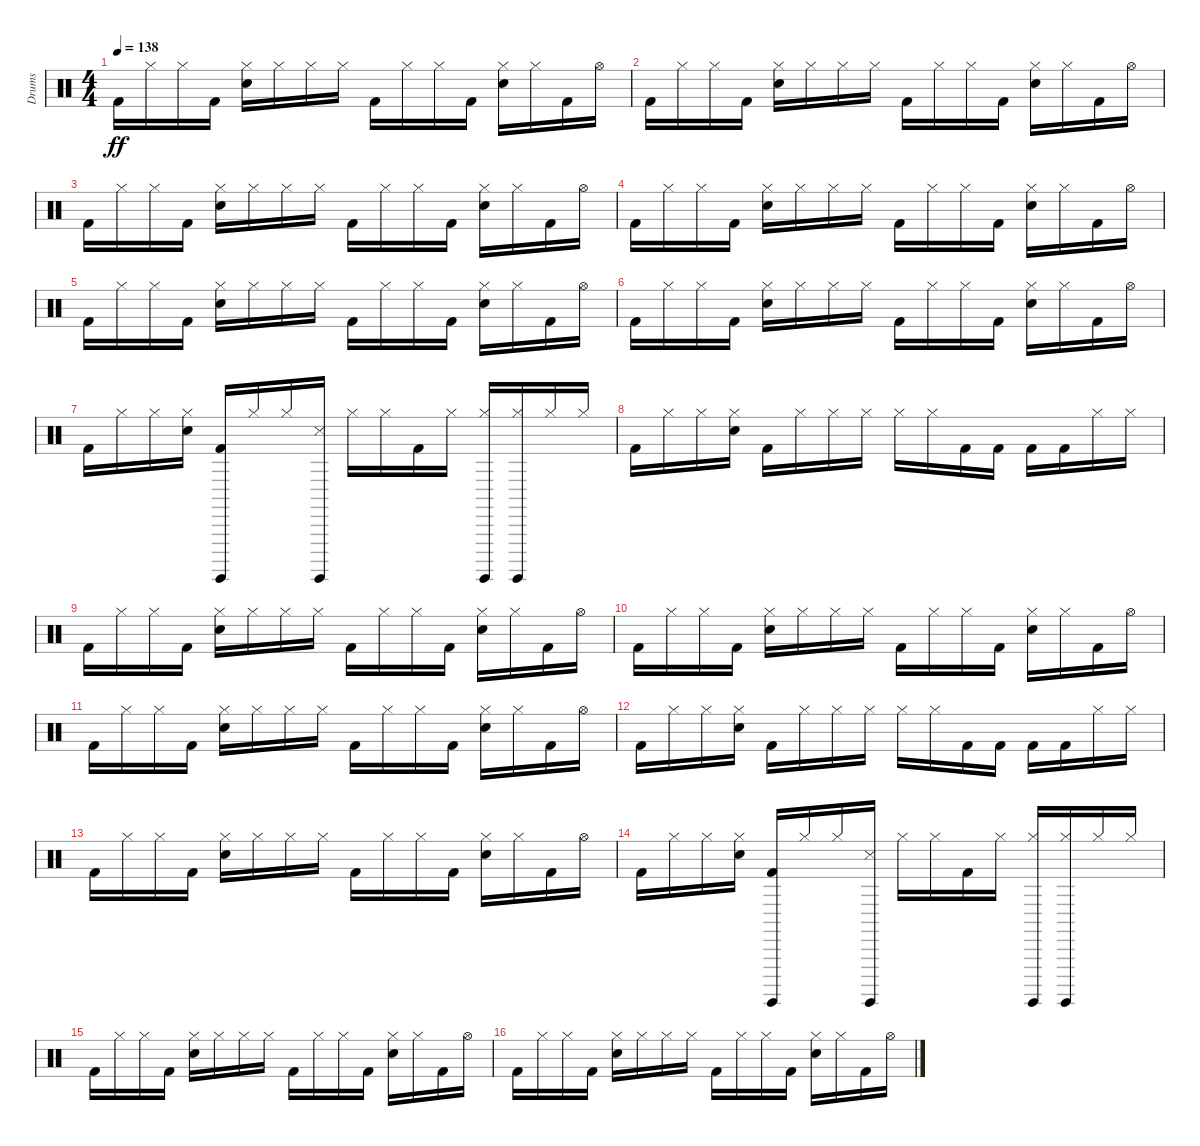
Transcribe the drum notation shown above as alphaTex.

\track ("Drums" "Drums") {instrument percussion}
\staff {score}
\articulation defaults
\ts (4 4)
\tempo 138
\clef neutral
\ks c "Kick (hit) 2".16{dy ff} "Hi-Hat (closed)".16 "Hi-Hat (closed)".16 "Kick (hit) 2".16
("Electric Snare (hit)" "Hi-Hat (closed)").16 "Hi-Hat (closed)".16 "Hi-Hat (closed)".16 "Hi-Hat (closed)".16 "Kick (hit) 2".16 "Hi-Hat (closed)".16 "Hi-Hat (closed)".16 "Kick (hit) 2".16 ("Electric Snare (hit)" "Hi-Hat (closed)").16 "Hi-Hat (closed)".16 "Kick (hit) 2".16 "Hi-Hat (open)".16 |
"Kick (hit) 2".16 "Hi-Hat (closed)".16 "Hi-Hat (closed)".16 "Kick (hit) 2".16 ("Electric Snare (hit)" "Hi-Hat (closed)").16 "Hi-Hat (closed)".16 "Hi-Hat (closed)".16 "Hi-Hat (closed)".16 "Kick (hit) 2".16 "Hi-Hat (closed)".16 "Hi-Hat (closed)".16 "Kick (hit) 2".16 ("Electric Snare (hit)" "Hi-Hat (closed)").16 "Hi-Hat (closed)".16 "Kick (hit) 2".16 "Hi-Hat (open)".16 |
"Kick (hit) 2".16 "Hi-Hat (closed)".16 "Hi-Hat (closed)".16 "Kick (hit) 2".16 ("Electric Snare (hit)" "Hi-Hat (closed)").16 "Hi-Hat (closed)".16 "Hi-Hat (closed)".16 "Hi-Hat (closed)".16 "Kick (hit) 2".16 "Hi-Hat (closed)".16 "Hi-Hat (closed)".16 "Kick (hit) 2".16 ("Electric Snare (hit)" "Hi-Hat (closed)").16 "Hi-Hat (closed)".16 "Kick (hit) 2".16 "Hi-Hat (open)".16 |
"Kick (hit) 2".16 "Hi-Hat (closed)".16 "Hi-Hat (closed)".16 "Kick (hit) 2".16 ("Electric Snare (hit)" "Hi-Hat (closed)").16 "Hi-Hat (closed)".16 "Hi-Hat (closed)".16 "Hi-Hat (closed)".16 "Kick (hit) 2".16 "Hi-Hat (closed)".16 "Hi-Hat (closed)".16 "Kick (hit) 2".16 ("Electric Snare (hit)" "Hi-Hat (closed)").16 "Hi-Hat (closed)".16 "Kick (hit) 2".16 "Hi-Hat (open)".16 |
"Kick (hit) 2".16 "Hi-Hat (closed)".16 "Hi-Hat (closed)".16 "Kick (hit) 2".16 ("Electric Snare (hit)" "Hi-Hat (closed)").16 "Hi-Hat (closed)".16 "Hi-Hat (closed)".16 "Hi-Hat (closed)".16 "Kick (hit) 2".16 "Hi-Hat (closed)".16 "Hi-Hat (closed)".16 "Kick (hit) 2".16 ("Electric Snare (hit)" "Hi-Hat (closed)").16 "Hi-Hat (closed)".16 "Kick (hit) 2".16 "Hi-Hat (open)".16 |
"Kick (hit) 2".16 "Hi-Hat (closed)".16 "Hi-Hat (closed)".16 "Kick (hit) 2".16 ("Electric Snare (hit)" "Hi-Hat (closed)").16 "Hi-Hat (closed)".16 "Hi-Hat (closed)".16 "Hi-Hat (closed)".16 "Kick (hit) 2".16 "Hi-Hat (closed)".16 "Hi-Hat (closed)".16 "Kick (hit) 2".16 ("Electric Snare (hit)" "Hi-Hat (closed)").16 "Hi-Hat (closed)".16 "Kick (hit) 2".16 "Hi-Hat (open)".16 |
"Kick (hit) 2".16 "Hi-Hat (closed)".16 "Hi-Hat (closed)".16 ("Electric Snare (hit)" "Hi-Hat (closed)").16 ("Kick (hit) 2" "Surdo (hit)").16 "Hi-Hat (closed)".16 "Hi-Hat (closed)".16 ("Snare (side stick) 3" "Surdo (hit)").16 "Hi-Hat (closed)".16 "Hi-Hat (closed)".16 "Kick (hit) 2".16 "Hi-Hat (closed)".16 ("Hi-Hat (closed)" "Surdo (hit)").16 ("Hi-Hat (closed)" "Surdo (hit)").16 "Hi-Hat (closed)".16 "Hi-Hat (closed)".16 |
"Kick (hit) 2".16 "Hi-Hat (closed)".16 "Hi-Hat (closed)".16 ("Electric Snare (hit)" "Hi-Hat (closed)").16 "Kick (hit) 2".16 "Hi-Hat (closed)".16 "Hi-Hat (closed)".16 "Hi-Hat (closed)".16 "Hi-Hat (closed)".16 "Hi-Hat (closed)".16 "Kick (hit) 2".16 "Kick (hit) 2".16 "Kick (hit) 2".16 "Kick (hit) 2".16 "Hi-Hat (closed)".16 "Hi-Hat (closed)".16 |
"Kick (hit) 2".16 "Hi-Hat (closed)".16 "Hi-Hat (closed)".16 "Kick (hit) 2".16 ("Electric Snare (hit)" "Hi-Hat (closed)").16 "Hi-Hat (closed)".16 "Hi-Hat (closed)".16 "Hi-Hat (closed)".16 "Kick (hit) 2".16 "Hi-Hat (closed)".16 "Hi-Hat (closed)".16 "Kick (hit) 2".16 ("Electric Snare (hit)" "Hi-Hat (closed)").16 "Hi-Hat (closed)".16 "Kick (hit) 2".16 "Hi-Hat (open)".16 |
"Kick (hit) 2".16 "Hi-Hat (closed)".16 "Hi-Hat (closed)".16 "Kick (hit) 2".16 ("Electric Snare (hit)" "Hi-Hat (closed)").16 "Hi-Hat (closed)".16 "Hi-Hat (closed)".16 "Hi-Hat (closed)".16 "Kick (hit) 2".16 "Hi-Hat (closed)".16 "Hi-Hat (closed)".16 "Kick (hit) 2".16 ("Electric Snare (hit)" "Hi-Hat (closed)").16 "Hi-Hat (closed)".16 "Kick (hit) 2".16 "Hi-Hat (open)".16 |
"Kick (hit) 2".16 "Hi-Hat (closed)".16 "Hi-Hat (closed)".16 "Kick (hit) 2".16 ("Electric Snare (hit)" "Hi-Hat (closed)").16 "Hi-Hat (closed)".16 "Hi-Hat (closed)".16 "Hi-Hat (closed)".16 "Kick (hit) 2".16 "Hi-Hat (closed)".16 "Hi-Hat (closed)".16 "Kick (hit) 2".16 ("Electric Snare (hit)" "Hi-Hat (closed)").16 "Hi-Hat (closed)".16 "Kick (hit) 2".16 "Hi-Hat (open)".16 |
"Kick (hit) 2".16 "Hi-Hat (closed)".16 "Hi-Hat (closed)".16 ("Electric Snare (hit)" "Hi-Hat (closed)").16 "Kick (hit) 2".16 "Hi-Hat (closed)".16 "Hi-Hat (closed)".16 "Hi-Hat (closed)".16 "Hi-Hat (closed)".16 "Hi-Hat (closed)".16 "Kick (hit) 2".16 "Kick (hit) 2".16 "Kick (hit) 2".16 "Kick (hit) 2".16 "Hi-Hat (closed)".16 "Hi-Hat (closed)".16 |
"Kick (hit) 2".16 "Hi-Hat (closed)".16 "Hi-Hat (closed)".16 "Kick (hit) 2".16 ("Electric Snare (hit)" "Hi-Hat (closed)").16 "Hi-Hat (closed)".16 "Hi-Hat (closed)".16 "Hi-Hat (closed)".16 "Kick (hit) 2".16 "Hi-Hat (closed)".16 "Hi-Hat (closed)".16 "Kick (hit) 2".16 ("Electric Snare (hit)" "Hi-Hat (closed)").16 "Hi-Hat (closed)".16 "Kick (hit) 2".16 "Hi-Hat (open)".16 |
"Kick (hit) 2".16 "Hi-Hat (closed)".16 "Hi-Hat (closed)".16 ("Electric Snare (hit)" "Hi-Hat (closed)").16 ("Kick (hit) 2" "Surdo (hit)").16 "Hi-Hat (closed)".16 "Hi-Hat (closed)".16 ("Snare (side stick) 3" "Surdo (hit)").16 "Hi-Hat (closed)".16 "Hi-Hat (closed)".16 "Kick (hit) 2".16 "Hi-Hat (closed)".16 ("Hi-Hat (closed)" "Surdo (hit)").16 ("Hi-Hat (closed)" "Surdo (hit)").16 "Hi-Hat (closed)".16 "Hi-Hat (closed)".16 |
"Kick (hit) 2".16 "Hi-Hat (closed)".16 "Hi-Hat (closed)".16 "Kick (hit) 2".16 ("Electric Snare (hit)" "Hi-Hat (closed)").16 "Hi-Hat (closed)".16 "Hi-Hat (closed)".16 "Hi-Hat (closed)".16 "Kick (hit) 2".16 "Hi-Hat (closed)".16 "Hi-Hat (closed)".16 "Kick (hit) 2".16 ("Electric Snare (hit)" "Hi-Hat (closed)").16 "Hi-Hat (closed)".16 "Kick (hit) 2".16 "Hi-Hat (open)".16 |
"Kick (hit) 2".16 "Hi-Hat (closed)".16 "Hi-Hat (closed)".16 "Kick (hit) 2".16 ("Electric Snare (hit)" "Hi-Hat (closed)").16 "Hi-Hat (closed)".16 "Hi-Hat (closed)".16 "Hi-Hat (closed)".16 "Kick (hit) 2".16 "Hi-Hat (closed)".16 "Hi-Hat (closed)".16 "Kick (hit) 2".16 ("Electric Snare (hit)" "Hi-Hat (closed)").16 "Hi-Hat (closed)".16 "Kick (hit) 2".16 "Hi-Hat (open)".16
